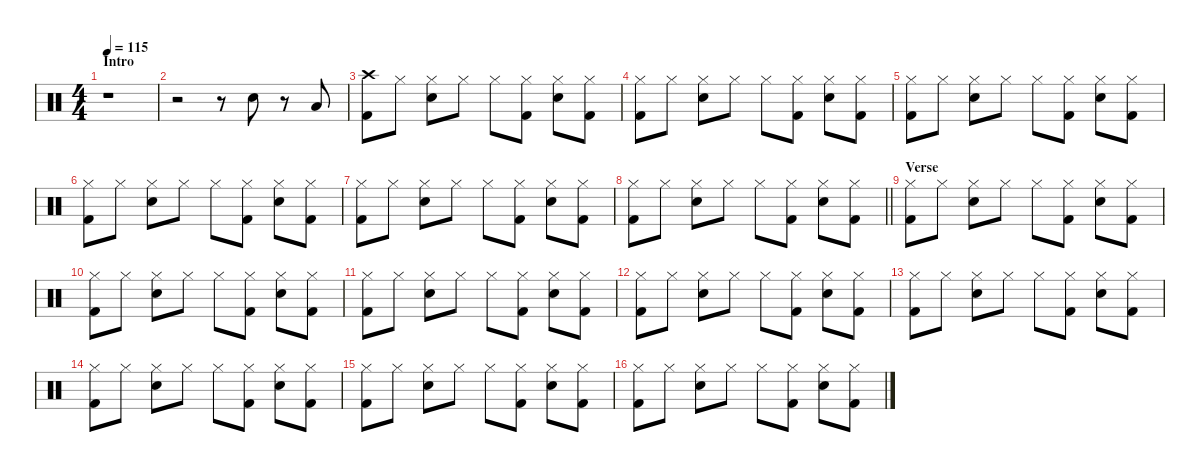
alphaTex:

\defaultSystemsLayout 4
\hideDynamics
\bracketExtendMode nobrackets
\singleTrackTrackNamePolicy hidden
\multiTrackTrackNamePolicy hidden
\otherSystemsTrackNameOrientation horizontal
\track ("Drums" "drm.") {defaultSystemsLayout 4 instrument percussion}
\staff {score}
\articulation defaults
\ts (4 4)
\beaming (8 2 2 2 2)
\section ("" "Intro")
\tempo 115
\clef neutral
\ks c
r.1{dy f} |
r.2 r.8 "Snare (hit) 2".8 r.8 "Low Tom (hit)".8 |
("Crash high (hit)" "Kick (hit) 2").8 "Hi-Hat (closed)".8 ("Hi-Hat (closed)" "Snare (hit) 2").8 "Hi-Hat (closed)".8 "Hi-Hat (closed)".8 ("Hi-Hat (closed)" "Kick (hit) 2").8 ("Hi-Hat (closed)" "Snare (hit) 2").8 ("Hi-Hat (closed)" "Kick (hit) 2").8 |
("Hi-Hat (closed)" "Kick (hit) 2").8 "Hi-Hat (closed)".8 ("Hi-Hat (closed)" "Snare (hit) 2").8 "Hi-Hat (closed)".8 "Hi-Hat (closed)".8 ("Hi-Hat (closed)" "Kick (hit) 2").8 ("Hi-Hat (closed)" "Snare (hit) 2").8 ("Hi-Hat (closed)" "Kick (hit) 2").8 |
("Hi-Hat (closed)" "Kick (hit) 2").8 "Hi-Hat (closed)".8 ("Hi-Hat (closed)" "Snare (hit) 2").8 "Hi-Hat (closed)".8 "Hi-Hat (closed)".8 ("Hi-Hat (closed)" "Kick (hit) 2").8 ("Hi-Hat (closed)" "Snare (hit) 2").8 ("Hi-Hat (closed)" "Kick (hit) 2").8 |
("Hi-Hat (closed)" "Kick (hit) 2").8 "Hi-Hat (closed)".8 ("Hi-Hat (closed)" "Snare (hit) 2").8 "Hi-Hat (closed)".8 "Hi-Hat (closed)".8 ("Hi-Hat (closed)" "Kick (hit) 2").8 ("Hi-Hat (closed)" "Snare (hit) 2").8 ("Hi-Hat (closed)" "Kick (hit) 2").8 |
("Hi-Hat (closed)" "Kick (hit) 2").8 "Hi-Hat (closed)".8 ("Hi-Hat (closed)" "Snare (hit) 2").8 "Hi-Hat (closed)".8 "Hi-Hat (closed)".8 ("Hi-Hat (closed)" "Kick (hit) 2").8 ("Hi-Hat (closed)" "Snare (hit) 2").8 ("Hi-Hat (closed)" "Kick (hit) 2").8 |
\barLineRight lightlight
("Hi-Hat (closed)" "Kick (hit) 2").8 "Hi-Hat (closed)".8 ("Hi-Hat (closed)" "Snare (hit) 2").8 "Hi-Hat (closed)".8 "Hi-Hat (closed)".8 ("Hi-Hat (closed)" "Kick (hit) 2").8 ("Hi-Hat (closed)" "Snare (hit) 2").8 ("Hi-Hat (closed)" "Kick (hit) 2").8 |
\section ("" "Verse")
("Hi-Hat (closed)" "Kick (hit) 2").8 "Hi-Hat (closed)".8 ("Hi-Hat (closed)" "Snare (hit) 2").8 "Hi-Hat (closed)".8 "Hi-Hat (closed)".8 ("Hi-Hat (closed)" "Kick (hit) 2").8 ("Hi-Hat (closed)" "Snare (hit) 2").8 ("Hi-Hat (closed)" "Kick (hit) 2").8 |
("Hi-Hat (closed)" "Kick (hit) 2").8 "Hi-Hat (closed)".8 ("Hi-Hat (closed)" "Snare (hit) 2").8 "Hi-Hat (closed)".8 "Hi-Hat (closed)".8 ("Hi-Hat (closed)" "Kick (hit) 2").8 ("Hi-Hat (closed)" "Snare (hit) 2").8 ("Hi-Hat (closed)" "Kick (hit) 2").8 |
("Hi-Hat (closed)" "Kick (hit) 2").8 "Hi-Hat (closed)".8 ("Hi-Hat (closed)" "Snare (hit) 2").8 "Hi-Hat (closed)".8 "Hi-Hat (closed)".8 ("Hi-Hat (closed)" "Kick (hit) 2").8 ("Hi-Hat (closed)" "Snare (hit) 2").8 ("Hi-Hat (closed)" "Kick (hit) 2").8 |
("Hi-Hat (closed)" "Kick (hit) 2").8 "Hi-Hat (closed)".8 ("Hi-Hat (closed)" "Snare (hit) 2").8 "Hi-Hat (closed)".8 "Hi-Hat (closed)".8 ("Hi-Hat (closed)" "Kick (hit) 2").8 ("Hi-Hat (closed)" "Snare (hit) 2").8 ("Hi-Hat (closed)" "Kick (hit) 2").8 |
("Hi-Hat (closed)" "Kick (hit) 2").8 "Hi-Hat (closed)".8 ("Hi-Hat (closed)" "Snare (hit) 2").8 "Hi-Hat (closed)".8 "Hi-Hat (closed)".8 ("Hi-Hat (closed)" "Kick (hit) 2").8 ("Hi-Hat (closed)" "Snare (hit) 2").8 ("Hi-Hat (closed)" "Kick (hit) 2").8 |
("Hi-Hat (closed)" "Kick (hit) 2").8 "Hi-Hat (closed)".8 ("Hi-Hat (closed)" "Snare (hit) 2").8 "Hi-Hat (closed)".8 "Hi-Hat (closed)".8 ("Hi-Hat (closed)" "Kick (hit) 2").8 ("Hi-Hat (closed)" "Snare (hit) 2").8 ("Hi-Hat (closed)" "Kick (hit) 2").8 |
("Hi-Hat (closed)" "Kick (hit) 2").8 "Hi-Hat (closed)".8 ("Hi-Hat (closed)" "Snare (hit) 2").8 "Hi-Hat (closed)".8 "Hi-Hat (closed)".8 ("Hi-Hat (closed)" "Kick (hit) 2").8 ("Hi-Hat (closed)" "Snare (hit) 2").8 ("Hi-Hat (closed)" "Kick (hit) 2").8 |
("Hi-Hat (closed)" "Kick (hit) 2").8 "Hi-Hat (closed)".8 ("Hi-Hat (closed)" "Snare (hit) 2").8 "Hi-Hat (closed)".8 "Hi-Hat (closed)".8 ("Hi-Hat (closed)" "Kick (hit) 2").8 ("Hi-Hat (closed)" "Snare (hit) 2").8 ("Hi-Hat (closed)" "Kick (hit) 2").8
